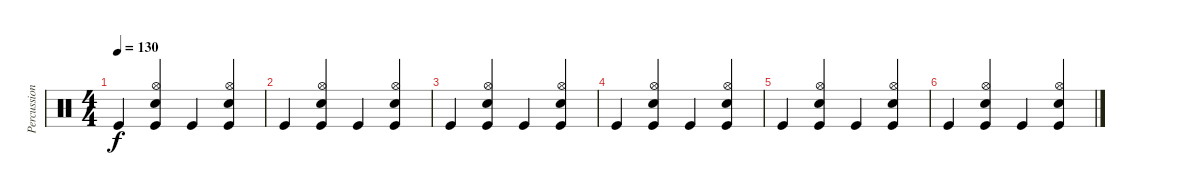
\track ("Percussion" "Percussion") {instrument percussion}
\staff {score}
\articulation defaults
\ts (4 4)
\tempo 130
\clef neutral
\ks c "Kick (hit)".4{dy f}
("Kick (hit)" "Hi-Hat (open)" "Snare (hit) 2").4 "Kick (hit)".4 ("Kick (hit)" "Hi-Hat (open)" "Snare (hit) 2").4 |
"Kick (hit)".4 ("Kick (hit)" "Hi-Hat (open)" "Snare (hit) 2").4 "Kick (hit)".4 ("Kick (hit)" "Hi-Hat (open)" "Snare (hit) 2").4 |
"Kick (hit)".4 ("Kick (hit)" "Hi-Hat (open)" "Snare (hit) 2").4 "Kick (hit)".4 ("Kick (hit)" "Hi-Hat (open)" "Snare (hit) 2").4 |
"Kick (hit)".4 ("Kick (hit)" "Hi-Hat (open)" "Snare (hit) 2").4 "Kick (hit)".4 ("Kick (hit)" "Hi-Hat (open)" "Snare (hit) 2").4 |
"Kick (hit)".4 ("Kick (hit)" "Hi-Hat (open)" "Snare (hit) 2").4 "Kick (hit)".4 ("Kick (hit)" "Hi-Hat (open)" "Snare (hit) 2").4 |
"Kick (hit)".4 ("Kick (hit)" "Hi-Hat (open)" "Snare (hit) 2").4 "Kick (hit)".4 ("Kick (hit)" "Hi-Hat (open)" "Snare (hit) 2").4
